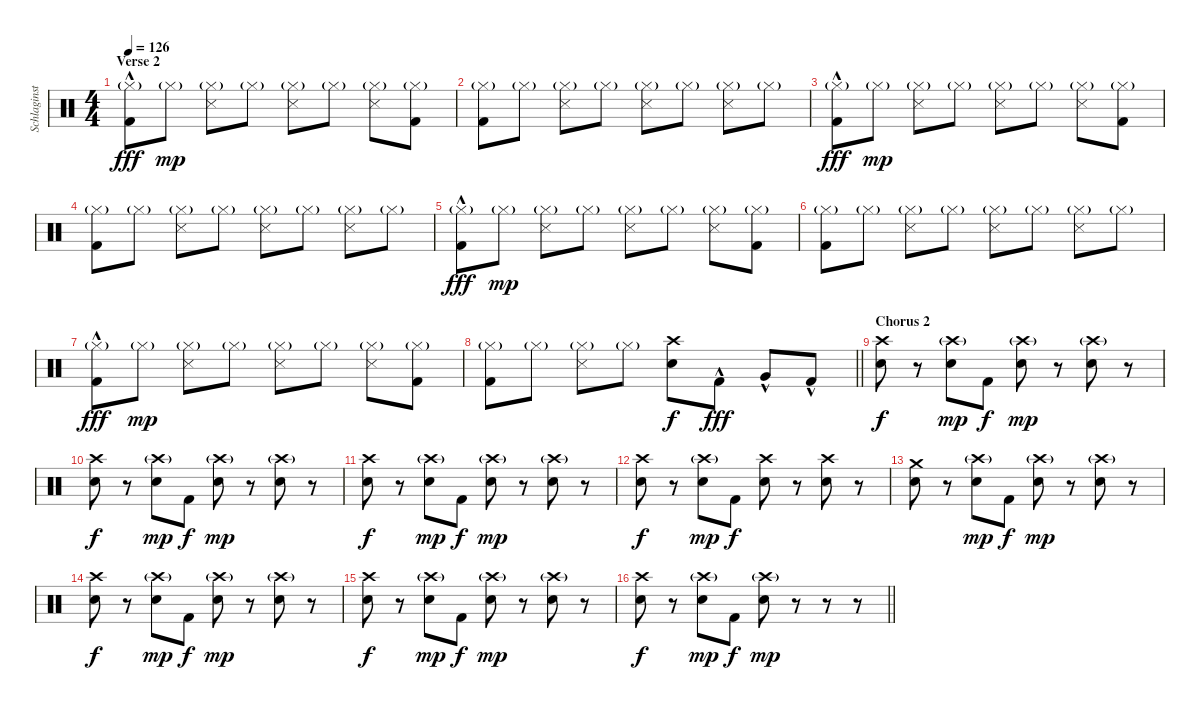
\track ("Schlaginstrumente - Auswahl" "Schlaginst") {instrument percussion}
\staff {score}
\articulation defaults
\ts (4 4)
\section ("" "Verse 2")
\tempo 126
\clef neutral
\ks c
("Hi-Hat (closed)"{g} "Kick (hit) 2"{hac}).8{dy fff} "Hi-Hat (closed)"{g}.8{dy mp} ("Hi-Hat (closed)"{g} "Snare (side stick) 3").8 "Hi-Hat (closed)"{g}.8 ("Hi-Hat (closed)"{g} "Snare (side stick) 3").8 "Hi-Hat (closed)"{g}.8 ("Hi-Hat (closed)"{g} "Snare (side stick) 3").8 ("Hi-Hat (closed)"{g} "Kick (hit) 2").8 |
("Hi-Hat (closed)"{g} "Kick (hit) 2").8 "Hi-Hat (closed)"{g}.8 ("Hi-Hat (closed)"{g} "Snare (side stick) 3").8 "Hi-Hat (closed)"{g}.8 ("Hi-Hat (closed)"{g} "Snare (side stick) 3").8 "Hi-Hat (closed)"{g}.8 ("Hi-Hat (closed)"{g} "Snare (side stick) 3").8 "Hi-Hat (closed)"{g}.8 |
("Hi-Hat (closed)"{g} "Kick (hit) 2"{hac}).8{dy fff} "Hi-Hat (closed)"{g}.8{dy mp} ("Hi-Hat (closed)"{g} "Snare (side stick) 3").8 "Hi-Hat (closed)"{g}.8 ("Hi-Hat (closed)"{g} "Snare (side stick) 3").8 "Hi-Hat (closed)"{g}.8 ("Hi-Hat (closed)"{g} "Snare (side stick) 3").8 ("Hi-Hat (closed)"{g} "Kick (hit) 2").8 |
("Hi-Hat (closed)"{g} "Kick (hit) 2").8 "Hi-Hat (closed)"{g}.8 ("Hi-Hat (closed)"{g} "Snare (side stick) 3").8 "Hi-Hat (closed)"{g}.8 ("Hi-Hat (closed)"{g} "Snare (side stick) 3").8 "Hi-Hat (closed)"{g}.8 ("Hi-Hat (closed)"{g} "Snare (side stick) 3").8 "Hi-Hat (closed)"{g}.8 |
("Hi-Hat (closed)"{g} "Kick (hit) 2"{hac}).8{dy fff} "Hi-Hat (closed)"{g}.8{dy mp} ("Hi-Hat (closed)"{g} "Snare (side stick) 3").8 "Hi-Hat (closed)"{g}.8 ("Hi-Hat (closed)"{g} "Snare (side stick) 3").8 "Hi-Hat (closed)"{g}.8 ("Hi-Hat (closed)"{g} "Snare (side stick) 3").8 ("Hi-Hat (closed)"{g} "Kick (hit) 2").8 |
("Hi-Hat (closed)"{g} "Kick (hit) 2").8 "Hi-Hat (closed)"{g}.8 ("Hi-Hat (closed)"{g} "Snare (side stick) 3").8 "Hi-Hat (closed)"{g}.8 ("Hi-Hat (closed)"{g} "Snare (side stick) 3").8 "Hi-Hat (closed)"{g}.8 ("Hi-Hat (closed)"{g} "Snare (side stick) 3").8 "Hi-Hat (closed)"{g}.8 |
("Hi-Hat (closed)"{g} "Kick (hit) 2"{hac}).8{dy fff} "Hi-Hat (closed)"{g}.8{dy mp} ("Hi-Hat (closed)"{g} "Snare (side stick) 3").8 "Hi-Hat (closed)"{g}.8 ("Hi-Hat (closed)"{g} "Snare (side stick) 3").8 "Hi-Hat (closed)"{g}.8 ("Hi-Hat (closed)"{g} "Snare (side stick) 3").8 ("Hi-Hat (closed)"{g} "Kick (hit) 2").8 |
\barLineRight lightlight
("Hi-Hat (closed)"{g} "Kick (hit) 2").8 "Hi-Hat (closed)"{g}.8 ("Hi-Hat (closed)"{g} "Snare (side stick) 3").8 "Hi-Hat (closed)"{g}.8 ("Crash high (hit)" "Electric Snare (hit)").8{dy f} "Kick (hit) 2"{hac}.8{dy fff} "Very Low Tom (hit)"{hac}.8 "Kick (hit) 2"{hac}.8 |
\section ("" "Chorus 2")
("Crash high (hit)" "Electric Snare (hit)").8{dy f} r.8 ("Crash high (hit)"{g} "Electric Snare (hit)").8{dy mp} "Kick (hit) 2".8{dy f} ("Crash high (hit)"{g} "Electric Snare (hit)").8{dy mp} r.8 ("Crash high (hit)"{g} "Electric Snare (hit)").8 r.8 |
("Crash high (hit)" "Electric Snare (hit)").8{dy f} r.8 ("Crash high (hit)"{g} "Electric Snare (hit)").8{dy mp} "Kick (hit) 2".8{dy f} ("Crash high (hit)"{g} "Electric Snare (hit)").8{dy mp} r.8 ("Crash high (hit)"{g} "Electric Snare (hit)").8 r.8 |
("Crash high (hit)" "Electric Snare (hit)").8{dy f} r.8 ("Crash high (hit)"{g} "Electric Snare (hit)").8{dy mp} "Kick (hit) 2".8{dy f} ("Crash high (hit)"{g} "Electric Snare (hit)").8{dy mp} r.8 ("Crash high (hit)"{g} "Electric Snare (hit)").8 r.8 |
("Crash high (hit)" "Electric Snare (hit)").8{dy f} r.8 ("Crash high (hit)"{g} "Electric Snare (hit)").8{dy mp} "Kick (hit) 2".8{dy f} ("Crash high (hit)" "Electric Snare (hit)").8 r.8 ("Crash high (hit)" "Electric Snare (hit)").8 r.8 |
("Crash medium (hit)" "Electric Snare (hit)").8 r.8 ("Crash high (hit)"{g} "Electric Snare (hit)").8{dy mp} "Kick (hit) 2".8{dy f} ("Crash high (hit)"{g} "Electric Snare (hit)").8{dy mp} r.8 ("Crash high (hit)"{g} "Electric Snare (hit)").8 r.8 |
("Crash high (hit)" "Electric Snare (hit)").8{dy f} r.8 ("Crash high (hit)"{g} "Electric Snare (hit)").8{dy mp} "Kick (hit) 2".8{dy f} ("Crash high (hit)"{g} "Electric Snare (hit)").8{dy mp} r.8 ("Crash high (hit)"{g} "Electric Snare (hit)").8 r.8 |
("Crash high (hit)" "Electric Snare (hit)").8{dy f} r.8 ("Crash high (hit)"{g} "Electric Snare (hit)").8{dy mp} "Kick (hit) 2".8{dy f} ("Crash high (hit)"{g} "Electric Snare (hit)").8{dy mp} r.8 ("Crash high (hit)"{g} "Electric Snare (hit)").8 r.8 |
\barLineRight lightlight
("Crash high (hit)" "Electric Snare (hit)").8{dy f} r.8 ("Crash high (hit)"{g} "Electric Snare (hit)").8{dy mp} "Kick (hit) 2".8{dy f} ("Crash high (hit)"{g} "Electric Snare (hit)").8{dy mp} r.8 r.8 r.8
